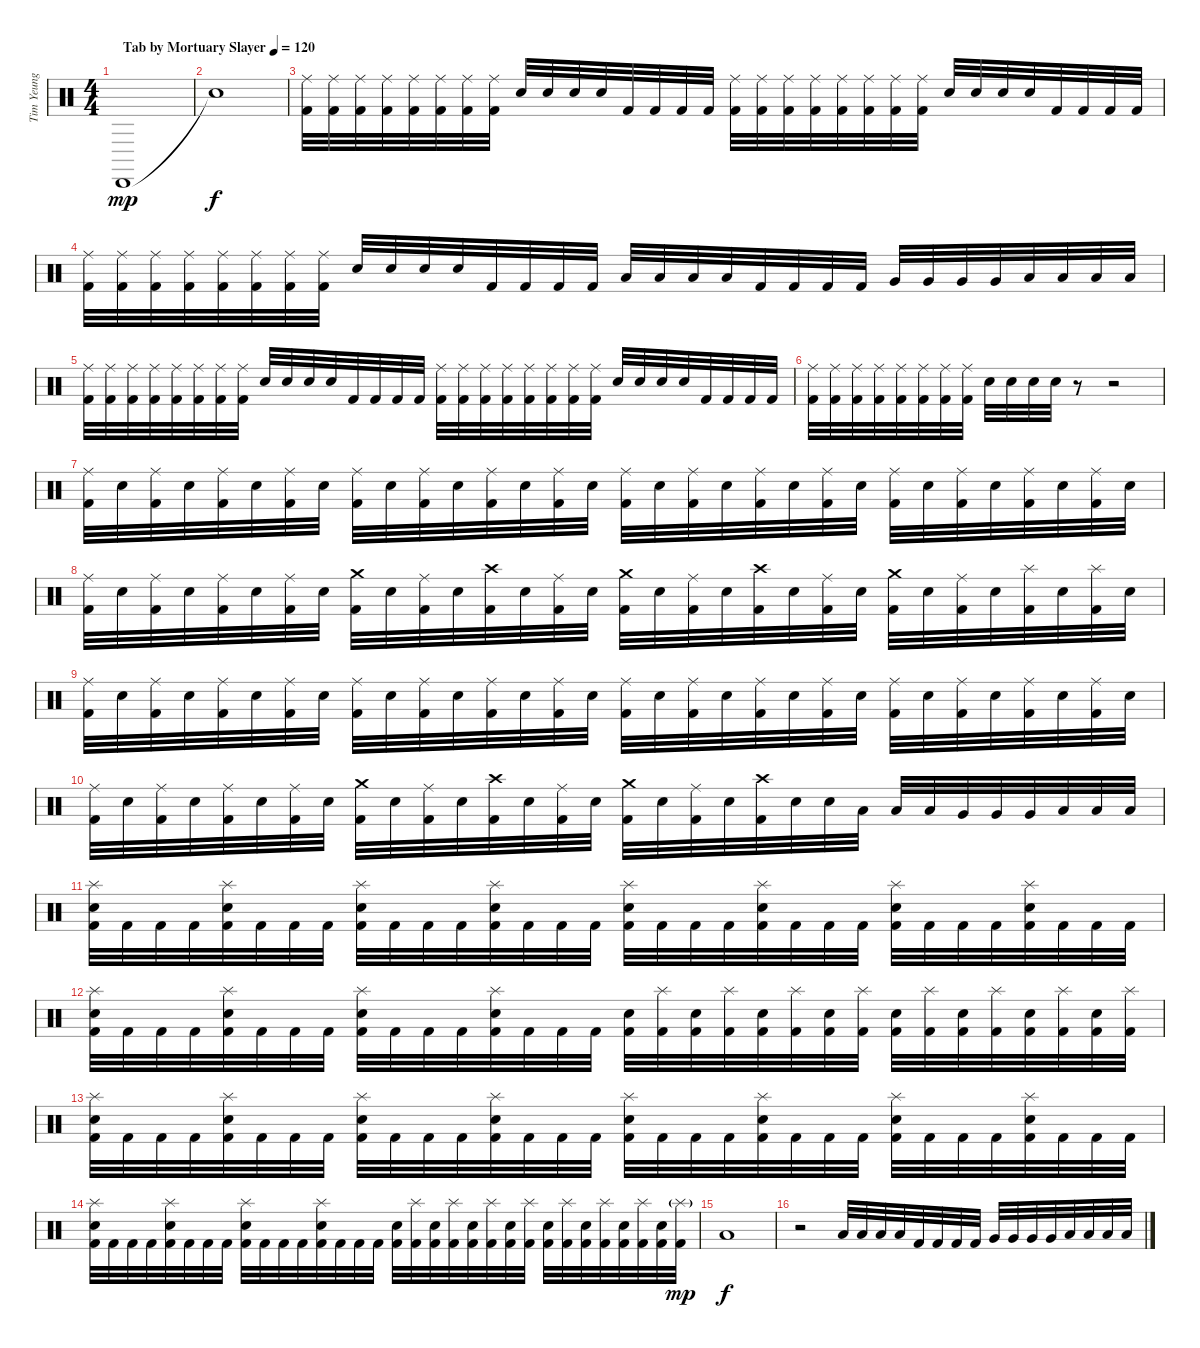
\track ("Tim Yeung" "Tim Yeung") {instrument percussion}
\staff {score}
\articulation defaults
\ts (4 4)
\tempo (120 "Tab by Mortuary Slayer")
\clef neutral
\ks c "Cabasa (hit)".1{dy mp}
|
"Snare (hit)"{t}.1{dy f} |
("Ride (middle)" "Kick (hit) 2").32 ("Ride (middle)" "Kick (hit) 2").32 ("Ride (middle)" "Kick (hit) 2").32 ("Ride (middle)" "Kick (hit) 2").32 ("Ride (middle)" "Kick (hit) 2").32 ("Ride (middle)" "Kick (hit) 2").32 ("Ride (middle)" "Kick (hit) 2").32 ("Ride (middle)" "Kick (hit) 2").32 "Electric Snare (hit)".32 "Electric Snare (hit)".32 "Electric Snare (hit)".32 "Electric Snare (hit)".32 "Kick (hit) 2".32 "Kick (hit) 2".32 "Kick (hit) 2".32 "Kick (hit) 2".32 ("Ride (middle)" "Kick (hit) 2").32 ("Ride (middle)" "Kick (hit) 2").32 ("Ride (middle)" "Kick (hit) 2").32 ("Ride (middle)" "Kick (hit) 2").32 ("Ride (middle)" "Kick (hit) 2").32 ("Ride (middle)" "Kick (hit) 2").32 ("Ride (middle)" "Kick (hit) 2").32 ("Ride (middle)" "Kick (hit) 2").32 "Electric Snare (hit)".32 "Electric Snare (hit)".32 "Electric Snare (hit)".32 "Electric Snare (hit)".32 "Kick (hit) 2".32 "Kick (hit) 2".32 "Kick (hit) 2".32 "Kick (hit) 2".32 |
("Ride (middle)" "Kick (hit) 2").32 ("Ride (middle)" "Kick (hit) 2").32 ("Ride (middle)" "Kick (hit) 2").32 ("Ride (middle)" "Kick (hit) 2").32 ("Ride (middle)" "Kick (hit) 2").32 ("Ride (middle)" "Kick (hit) 2").32 ("Ride (middle)" "Kick (hit) 2").32 ("Ride (middle)" "Kick (hit) 2").32 "Electric Snare (hit)".32 "Electric Snare (hit)".32 "Electric Snare (hit)".32 "Electric Snare (hit)".32 "Kick (hit) 2".32 "Kick (hit) 2".32 "Kick (hit) 2".32 "Kick (hit) 2".32 "Low Tom (hit)".32 "Low Tom (hit)".32 "Low Tom (hit)".32 "Low Tom (hit)".32 "Kick (hit) 2".32 "Kick (hit) 2".32 "Kick (hit) 2".32 "Kick (hit) 2".32 "Very Low Tom (hit)".32 "Very Low Tom (hit)".32 "Very Low Tom (hit)".32 "Very Low Tom (hit)".32 "Low Floor Tom (hit)".32 "Low Floor Tom (hit)".32 "Low Floor Tom (hit)".32 "Low Floor Tom (hit)".32 |
("Ride (middle)" "Kick (hit) 2").32 ("Ride (middle)" "Kick (hit) 2").32 ("Ride (middle)" "Kick (hit) 2").32 ("Ride (middle)" "Kick (hit) 2").32 ("Ride (middle)" "Kick (hit) 2").32 ("Ride (middle)" "Kick (hit) 2").32 ("Ride (middle)" "Kick (hit) 2").32 ("Ride (middle)" "Kick (hit) 2").32 "Electric Snare (hit)".32 "Electric Snare (hit)".32 "Electric Snare (hit)".32 "Electric Snare (hit)".32 "Kick (hit) 2".32 "Kick (hit) 2".32 "Kick (hit) 2".32 "Kick (hit) 2".32 ("Ride (middle)" "Kick (hit) 2").32 ("Ride (middle)" "Kick (hit) 2").32 ("Ride (middle)" "Kick (hit) 2").32 ("Ride (middle)" "Kick (hit) 2").32 ("Ride (middle)" "Kick (hit) 2").32 ("Ride (middle)" "Kick (hit) 2").32 ("Ride (middle)" "Kick (hit) 2").32 ("Ride (middle)" "Kick (hit) 2").32 "Electric Snare (hit)".32 "Electric Snare (hit)".32 "Electric Snare (hit)".32 "Electric Snare (hit)".32 "Kick (hit) 2".32 "Kick (hit) 2".32 "Kick (hit) 2".32 "Kick (hit) 2".32 |
("Ride (middle)" "Kick (hit) 2").32 ("Ride (middle)" "Kick (hit) 2").32 ("Ride (middle)" "Kick (hit) 2").32 ("Ride (middle)" "Kick (hit) 2").32 ("Ride (middle)" "Kick (hit) 2").32 ("Ride (middle)" "Kick (hit) 2").32 ("Ride (middle)" "Kick (hit) 2").32 ("Ride (middle)" "Kick (hit) 2").32 "Electric Snare (hit)".32 "Electric Snare (hit)".32 "Electric Snare (hit)".32 "Electric Snare (hit)".32 r.8 r.2 |
("Ride (middle)" "Kick (hit) 2").32 "Electric Snare (hit)".32 ("Ride (middle)" "Kick (hit) 2").32 "Electric Snare (hit)".32 ("Ride (middle)" "Kick (hit) 2").32 "Electric Snare (hit)".32 ("Ride (middle)" "Kick (hit) 2").32 "Electric Snare (hit)".32 ("Ride (middle)" "Kick (hit) 2").32 "Electric Snare (hit)".32 ("Ride (middle)" "Kick (hit) 2").32 "Electric Snare (hit)".32 ("Ride (middle)" "Kick (hit) 2").32 "Electric Snare (hit)".32 ("Ride (middle)" "Kick (hit) 2").32 "Electric Snare (hit)".32 ("Ride (middle)" "Kick (hit) 2").32 "Electric Snare (hit)".32 ("Ride (middle)" "Kick (hit) 2").32 "Electric Snare (hit)".32 ("Ride (middle)" "Kick (hit) 2").32 "Electric Snare (hit)".32 ("Ride (middle)" "Kick (hit) 2").32 "Electric Snare (hit)".32 ("Ride (middle)" "Kick (hit) 2").32 "Electric Snare (hit)".32 ("Ride (middle)" "Kick (hit) 2").32 "Electric Snare (hit)".32 ("Ride (middle)" "Kick (hit) 2").32 "Electric Snare (hit)".32 ("Ride (middle)" "Kick (hit) 2").32 "Electric Snare (hit)".32 |
("Ride (middle)" "Kick (hit) 2").32 "Electric Snare (hit)".32 ("Ride (middle)" "Kick (hit) 2").32 "Electric Snare (hit)".32 ("Ride (middle)" "Kick (hit) 2").32 "Electric Snare (hit)".32 ("Ride (middle)" "Kick (hit) 2").32 "Electric Snare (hit)".32 ("Crash medium (hit)" "Kick (hit) 2").32 "Electric Snare (hit)".32 ("Ride (middle)" "Kick (hit) 2").32 "Electric Snare (hit)".32 ("Crash high (hit)" "Kick (hit) 2").32 "Electric Snare (hit)".32 ("Ride (middle)" "Kick (hit) 2").32 "Electric Snare (hit)".32 ("Crash medium (hit)" "Kick (hit) 2").32 "Electric Snare (hit)".32 ("Ride (middle)" "Kick (hit) 2").32 "Electric Snare (hit)".32 ("Crash high (hit)" "Kick (hit) 2").32 "Electric Snare (hit)".32 ("Ride (middle)" "Kick (hit) 2").32 "Electric Snare (hit)".32 ("Crash medium (hit)" "Kick (hit) 2").32 "Electric Snare (hit)".32 ("Ride (middle)" "Kick (hit) 2").32 "Electric Snare (hit)".32 ("Splash (hit)" "Kick (hit) 2").32 "Electric Snare (hit)".32 ("Splash (hit)" "Kick (hit) 2").32 "Electric Snare (hit)".32 |
("Ride (middle)" "Kick (hit) 2").32 "Electric Snare (hit)".32 ("Ride (middle)" "Kick (hit) 2").32 "Electric Snare (hit)".32 ("Ride (middle)" "Kick (hit) 2").32 "Electric Snare (hit)".32 ("Ride (middle)" "Kick (hit) 2").32 "Electric Snare (hit)".32 ("Ride (middle)" "Kick (hit) 2").32 "Electric Snare (hit)".32 ("Ride (middle)" "Kick (hit) 2").32 "Electric Snare (hit)".32 ("Ride (middle)" "Kick (hit) 2").32 "Electric Snare (hit)".32 ("Ride (middle)" "Kick (hit) 2").32 "Electric Snare (hit)".32 ("Ride (middle)" "Kick (hit) 2").32 "Electric Snare (hit)".32 ("Ride (middle)" "Kick (hit) 2").32 "Electric Snare (hit)".32 ("Ride (middle)" "Kick (hit) 2").32 "Electric Snare (hit)".32 ("Ride (middle)" "Kick (hit) 2").32 "Electric Snare (hit)".32 ("Ride (middle)" "Kick (hit) 2").32 "Electric Snare (hit)".32 ("Ride (middle)" "Kick (hit) 2").32 "Electric Snare (hit)".32 ("Ride (middle)" "Kick (hit) 2").32 "Electric Snare (hit)".32 ("Ride (middle)" "Kick (hit) 2").32 "Electric Snare (hit)".32 |
("Ride (middle)" "Kick (hit) 2").32 "Electric Snare (hit)".32 ("Ride (middle)" "Kick (hit) 2").32 "Electric Snare (hit)".32 ("Ride (middle)" "Kick (hit) 2").32 "Electric Snare (hit)".32 ("Ride (middle)" "Kick (hit) 2").32 "Electric Snare (hit)".32 ("Crash medium (hit)" "Kick (hit) 2").32 "Electric Snare (hit)".32 ("Ride (middle)" "Kick (hit) 2").32 "Electric Snare (hit)".32 ("Crash high (hit)" "Kick (hit) 2").32 "Electric Snare (hit)".32 ("Ride (middle)" "Kick (hit) 2").32 "Electric Snare (hit)".32 ("Crash medium (hit)" "Kick (hit) 2").32 "Electric Snare (hit)".32 ("Ride (middle)" "Kick (hit) 2").32 "Electric Snare (hit)".32 ("Crash high (hit)" "Kick (hit) 2").32 "Electric Snare (hit)".32 "Electric Snare (hit)".32 "Low Tom (hit)".32 "Low Tom (hit)".32 "Low Tom (hit)".32 "Very Low Tom (hit)".32 "Very Low Tom (hit)".32 "Very Low Tom (hit)".32 "Low Floor Tom (hit)".32 "Low Floor Tom (hit)".32 "Low Floor Tom (hit)".32 |
("Splash (hit)" "Electric Snare (hit)" "Kick (hit) 2").32 "Kick (hit) 2".32 "Kick (hit) 2".32 "Kick (hit) 2".32 ("Splash (hit)" "Electric Snare (hit)" "Kick (hit) 2").32 "Kick (hit) 2".32 "Kick (hit) 2".32 "Kick (hit) 2".32 ("Splash (hit)" "Electric Snare (hit)" "Kick (hit) 2").32 "Kick (hit) 2".32 "Kick (hit) 2".32 "Kick (hit) 2".32 ("Splash (hit)" "Electric Snare (hit)" "Kick (hit) 2").32 "Kick (hit) 2".32 "Kick (hit) 2".32 "Kick (hit) 2".32 ("Splash (hit)" "Electric Snare (hit)" "Kick (hit) 2").32 "Kick (hit) 2".32 "Kick (hit) 2".32 "Kick (hit) 2".32 ("Splash (hit)" "Electric Snare (hit)" "Kick (hit) 2").32 "Kick (hit) 2".32 "Kick (hit) 2".32 "Kick (hit) 2".32 ("Splash (hit)" "Electric Snare (hit)" "Kick (hit) 2").32 "Kick (hit) 2".32 "Kick (hit) 2".32 "Kick (hit) 2".32 ("Splash (hit)" "Electric Snare (hit)" "Kick (hit) 2").32 "Kick (hit) 2".32 "Kick (hit) 2".32 "Kick (hit) 2".32 |
("Splash (hit)" "Electric Snare (hit)" "Kick (hit) 2").32 "Kick (hit) 2".32 "Kick (hit) 2".32 "Kick (hit) 2".32 ("Splash (hit)" "Electric Snare (hit)" "Kick (hit) 2").32 "Kick (hit) 2".32 "Kick (hit) 2".32 "Kick (hit) 2".32 ("Splash (hit)" "Electric Snare (hit)" "Kick (hit) 2").32 "Kick (hit) 2".32 "Kick (hit) 2".32 "Kick (hit) 2".32 ("Splash (hit)" "Electric Snare (hit)" "Kick (hit) 2").32 "Kick (hit) 2".32 "Kick (hit) 2".32 "Kick (hit) 2".32 ("Electric Snare (hit)" "Kick (hit) 2").32 ("Splash (hit)" "Kick (hit) 2").32 ("Electric Snare (hit)" "Kick (hit) 2").32 ("Splash (hit)" "Kick (hit) 2").32 ("Electric Snare (hit)" "Kick (hit) 2").32 ("Splash (hit)" "Kick (hit) 2").32 ("Electric Snare (hit)" "Kick (hit) 2").32 ("Splash (hit)" "Kick (hit) 2").32 ("Electric Snare (hit)" "Kick (hit) 2").32 ("Splash (hit)" "Kick (hit) 2").32 ("Electric Snare (hit)" "Kick (hit) 2").32 ("Splash (hit)" "Kick (hit) 2").32 ("Electric Snare (hit)" "Kick (hit) 2").32 ("Splash (hit)" "Kick (hit) 2").32 ("Electric Snare (hit)" "Kick (hit) 2").32 ("Splash (hit)" "Kick (hit) 2").32 |
("Splash (hit)" "Electric Snare (hit)" "Kick (hit) 2").32 "Kick (hit) 2".32 "Kick (hit) 2".32 "Kick (hit) 2".32 ("Splash (hit)" "Electric Snare (hit)" "Kick (hit) 2").32 "Kick (hit) 2".32 "Kick (hit) 2".32 "Kick (hit) 2".32 ("Splash (hit)" "Electric Snare (hit)" "Kick (hit) 2").32 "Kick (hit) 2".32 "Kick (hit) 2".32 "Kick (hit) 2".32 ("Splash (hit)" "Electric Snare (hit)" "Kick (hit) 2").32 "Kick (hit) 2".32 "Kick (hit) 2".32 "Kick (hit) 2".32 ("Splash (hit)" "Electric Snare (hit)" "Kick (hit) 2").32 "Kick (hit) 2".32 "Kick (hit) 2".32 "Kick (hit) 2".32 ("Splash (hit)" "Electric Snare (hit)" "Kick (hit) 2").32 "Kick (hit) 2".32 "Kick (hit) 2".32 "Kick (hit) 2".32 ("Splash (hit)" "Electric Snare (hit)" "Kick (hit) 2").32 "Kick (hit) 2".32 "Kick (hit) 2".32 "Kick (hit) 2".32 ("Splash (hit)" "Electric Snare (hit)" "Kick (hit) 2").32 "Kick (hit) 2".32 "Kick (hit) 2".32 "Kick (hit) 2".32 |
("Splash (hit)" "Electric Snare (hit)" "Kick (hit) 2").32 "Kick (hit) 2".32 "Kick (hit) 2".32 "Kick (hit) 2".32 ("Splash (hit)" "Electric Snare (hit)" "Kick (hit) 2").32 "Kick (hit) 2".32 "Kick (hit) 2".32 "Kick (hit) 2".32 ("Splash (hit)" "Electric Snare (hit)" "Kick (hit) 2").32 "Kick (hit) 2".32 "Kick (hit) 2".32 "Kick (hit) 2".32 ("Splash (hit)" "Electric Snare (hit)" "Kick (hit) 2").32 "Kick (hit) 2".32 "Kick (hit) 2".32 "Kick (hit) 2".32 ("Electric Snare (hit)" "Kick (hit) 2").32 ("Splash (hit)" "Kick (hit) 2").32 ("Electric Snare (hit)" "Kick (hit) 2").32 ("Splash (hit)" "Kick (hit) 2").32 ("Electric Snare (hit)" "Kick (hit) 2").32 ("Splash (hit)" "Kick (hit) 2").32 ("Electric Snare (hit)" "Kick (hit) 2").32 ("Splash (hit)" "Kick (hit) 2").32 ("Electric Snare (hit)" "Kick (hit) 2").32 ("Splash (hit)" "Kick (hit) 2").32 ("Electric Snare (hit)" "Kick (hit) 2").32 ("Splash (hit)" "Kick (hit) 2").32 ("Electric Snare (hit)" "Kick (hit) 2").32 ("Splash (hit)" "Kick (hit) 2").32 ("Electric Snare (hit)" "Kick (hit) 2").32 ("Splash (hit)"{g} "Kick (hit) 2").32{dy mp} |
"Low Floor Tom (hit)".1{dy f} |
r.2 "Low Tom (hit)".32 "Low Tom (hit)".32 "Low Tom (hit)".32 "Low Tom (hit)".32 "Kick (hit) 2".32 "Kick (hit) 2".32 "Kick (hit) 2".32 "Kick (hit) 2".32 "Very Low Tom (hit)".32 "Very Low Tom (hit)".32 "Very Low Tom (hit)".32 "Very Low Tom (hit)".32 "Low Floor Tom (hit)".32 "Low Floor Tom (hit)".32 "Low Floor Tom (hit)".32 "Low Floor Tom (hit)".32
